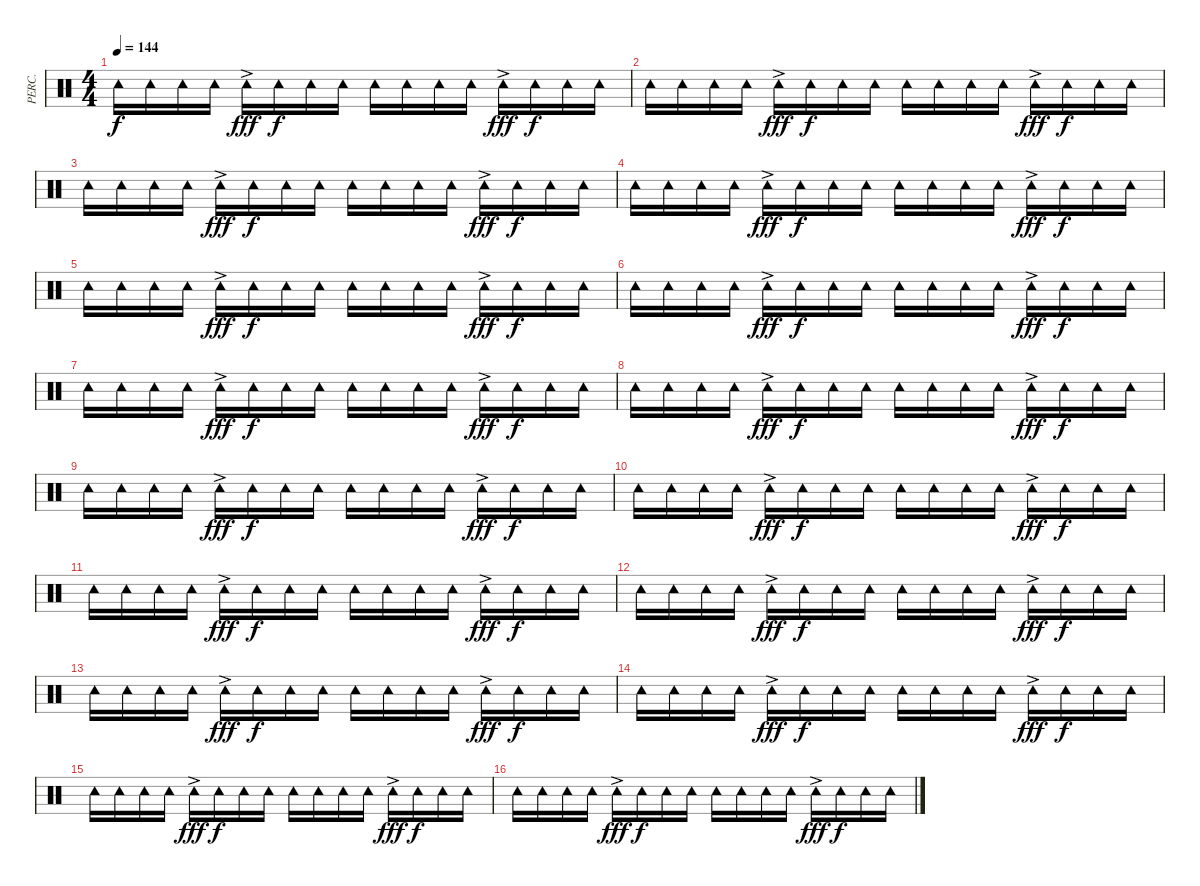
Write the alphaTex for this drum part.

\track ("PERC." "PERC.") {instrument percussion}
\staff {score}
\articulation defaults
\ts (4 4)
\tempo 144
\clef neutral
\ks c "Tambourine (hit)".16{dy f} "Tambourine (hit)".16 "Tambourine (hit)".16 "Tambourine (hit)".16 "Tambourine (hit)"{ac}.16{dy fff} "Tambourine (hit)".16{dy f} "Tambourine (hit)".16 "Tambourine (hit)".16 "Tambourine (hit)".16 "Tambourine (hit)".16 "Tambourine (hit)".16 "Tambourine (hit)".16 "Tambourine (hit)"{ac}.16{dy fff} "Tambourine (hit)".16{dy f} "Tambourine (hit)".16 "Tambourine (hit)".16
|
"Tambourine (hit)".16 "Tambourine (hit)".16 "Tambourine (hit)".16 "Tambourine (hit)".16 "Tambourine (hit)"{ac}.16{dy fff} "Tambourine (hit)".16{dy f} "Tambourine (hit)".16 "Tambourine (hit)".16 "Tambourine (hit)".16 "Tambourine (hit)".16 "Tambourine (hit)".16 "Tambourine (hit)".16 "Tambourine (hit)"{ac}.16{dy fff} "Tambourine (hit)".16{dy f} "Tambourine (hit)".16 "Tambourine (hit)".16 |
"Tambourine (hit)".16 "Tambourine (hit)".16 "Tambourine (hit)".16 "Tambourine (hit)".16 "Tambourine (hit)"{ac}.16{dy fff} "Tambourine (hit)".16{dy f} "Tambourine (hit)".16 "Tambourine (hit)".16 "Tambourine (hit)".16 "Tambourine (hit)".16 "Tambourine (hit)".16 "Tambourine (hit)".16 "Tambourine (hit)"{ac}.16{dy fff} "Tambourine (hit)".16{dy f} "Tambourine (hit)".16 "Tambourine (hit)".16 |
"Tambourine (hit)".16 "Tambourine (hit)".16 "Tambourine (hit)".16 "Tambourine (hit)".16 "Tambourine (hit)"{ac}.16{dy fff} "Tambourine (hit)".16{dy f} "Tambourine (hit)".16 "Tambourine (hit)".16 "Tambourine (hit)".16 "Tambourine (hit)".16 "Tambourine (hit)".16 "Tambourine (hit)".16 "Tambourine (hit)"{ac}.16{dy fff} "Tambourine (hit)".16{dy f} "Tambourine (hit)".16 "Tambourine (hit)".16 |
"Tambourine (hit)".16 "Tambourine (hit)".16 "Tambourine (hit)".16 "Tambourine (hit)".16 "Tambourine (hit)"{ac}.16{dy fff} "Tambourine (hit)".16{dy f} "Tambourine (hit)".16 "Tambourine (hit)".16 "Tambourine (hit)".16 "Tambourine (hit)".16 "Tambourine (hit)".16 "Tambourine (hit)".16 "Tambourine (hit)"{ac}.16{dy fff} "Tambourine (hit)".16{dy f} "Tambourine (hit)".16 "Tambourine (hit)".16 |
"Tambourine (hit)".16 "Tambourine (hit)".16 "Tambourine (hit)".16 "Tambourine (hit)".16 "Tambourine (hit)"{ac}.16{dy fff} "Tambourine (hit)".16{dy f} "Tambourine (hit)".16 "Tambourine (hit)".16 "Tambourine (hit)".16 "Tambourine (hit)".16 "Tambourine (hit)".16 "Tambourine (hit)".16 "Tambourine (hit)"{ac}.16{dy fff} "Tambourine (hit)".16{dy f} "Tambourine (hit)".16 "Tambourine (hit)".16 |
"Tambourine (hit)".16 "Tambourine (hit)".16 "Tambourine (hit)".16 "Tambourine (hit)".16 "Tambourine (hit)"{ac}.16{dy fff} "Tambourine (hit)".16{dy f} "Tambourine (hit)".16 "Tambourine (hit)".16 "Tambourine (hit)".16 "Tambourine (hit)".16 "Tambourine (hit)".16 "Tambourine (hit)".16 "Tambourine (hit)"{ac}.16{dy fff} "Tambourine (hit)".16{dy f} "Tambourine (hit)".16 "Tambourine (hit)".16 |
"Tambourine (hit)".16 "Tambourine (hit)".16 "Tambourine (hit)".16 "Tambourine (hit)".16 "Tambourine (hit)"{ac}.16{dy fff} "Tambourine (hit)".16{dy f} "Tambourine (hit)".16 "Tambourine (hit)".16 "Tambourine (hit)".16 "Tambourine (hit)".16 "Tambourine (hit)".16 "Tambourine (hit)".16 "Tambourine (hit)"{ac}.16{dy fff} "Tambourine (hit)".16{dy f} "Tambourine (hit)".16 "Tambourine (hit)".16 |
"Tambourine (hit)".16 "Tambourine (hit)".16 "Tambourine (hit)".16 "Tambourine (hit)".16 "Tambourine (hit)"{ac}.16{dy fff} "Tambourine (hit)".16{dy f} "Tambourine (hit)".16 "Tambourine (hit)".16 "Tambourine (hit)".16 "Tambourine (hit)".16 "Tambourine (hit)".16 "Tambourine (hit)".16 "Tambourine (hit)"{ac}.16{dy fff} "Tambourine (hit)".16{dy f} "Tambourine (hit)".16 "Tambourine (hit)".16 |
"Tambourine (hit)".16 "Tambourine (hit)".16 "Tambourine (hit)".16 "Tambourine (hit)".16 "Tambourine (hit)"{ac}.16{dy fff} "Tambourine (hit)".16{dy f} "Tambourine (hit)".16 "Tambourine (hit)".16 "Tambourine (hit)".16 "Tambourine (hit)".16 "Tambourine (hit)".16 "Tambourine (hit)".16 "Tambourine (hit)"{ac}.16{dy fff} "Tambourine (hit)".16{dy f} "Tambourine (hit)".16 "Tambourine (hit)".16 |
"Tambourine (hit)".16 "Tambourine (hit)".16 "Tambourine (hit)".16 "Tambourine (hit)".16 "Tambourine (hit)"{ac}.16{dy fff} "Tambourine (hit)".16{dy f} "Tambourine (hit)".16 "Tambourine (hit)".16 "Tambourine (hit)".16 "Tambourine (hit)".16 "Tambourine (hit)".16 "Tambourine (hit)".16 "Tambourine (hit)"{ac}.16{dy fff} "Tambourine (hit)".16{dy f} "Tambourine (hit)".16 "Tambourine (hit)".16 |
"Tambourine (hit)".16 "Tambourine (hit)".16 "Tambourine (hit)".16 "Tambourine (hit)".16 "Tambourine (hit)"{ac}.16{dy fff} "Tambourine (hit)".16{dy f} "Tambourine (hit)".16 "Tambourine (hit)".16 "Tambourine (hit)".16 "Tambourine (hit)".16 "Tambourine (hit)".16 "Tambourine (hit)".16 "Tambourine (hit)"{ac}.16{dy fff} "Tambourine (hit)".16{dy f} "Tambourine (hit)".16 "Tambourine (hit)".16 |
"Tambourine (hit)".16 "Tambourine (hit)".16 "Tambourine (hit)".16 "Tambourine (hit)".16 "Tambourine (hit)"{ac}.16{dy fff} "Tambourine (hit)".16{dy f} "Tambourine (hit)".16 "Tambourine (hit)".16 "Tambourine (hit)".16 "Tambourine (hit)".16 "Tambourine (hit)".16 "Tambourine (hit)".16 "Tambourine (hit)"{ac}.16{dy fff} "Tambourine (hit)".16{dy f} "Tambourine (hit)".16 "Tambourine (hit)".16 |
"Tambourine (hit)".16 "Tambourine (hit)".16 "Tambourine (hit)".16 "Tambourine (hit)".16 "Tambourine (hit)"{ac}.16{dy fff} "Tambourine (hit)".16{dy f} "Tambourine (hit)".16 "Tambourine (hit)".16 "Tambourine (hit)".16 "Tambourine (hit)".16 "Tambourine (hit)".16 "Tambourine (hit)".16 "Tambourine (hit)"{ac}.16{dy fff} "Tambourine (hit)".16{dy f} "Tambourine (hit)".16 "Tambourine (hit)".16 |
"Tambourine (hit)".16 "Tambourine (hit)".16 "Tambourine (hit)".16 "Tambourine (hit)".16 "Tambourine (hit)"{ac}.16{dy fff} "Tambourine (hit)".16{dy f} "Tambourine (hit)".16 "Tambourine (hit)".16 "Tambourine (hit)".16 "Tambourine (hit)".16 "Tambourine (hit)".16 "Tambourine (hit)".16 "Tambourine (hit)"{ac}.16{dy fff} "Tambourine (hit)".16{dy f} "Tambourine (hit)".16 "Tambourine (hit)".16 |
"Tambourine (hit)".16 "Tambourine (hit)".16 "Tambourine (hit)".16 "Tambourine (hit)".16 "Tambourine (hit)"{ac}.16{dy fff} "Tambourine (hit)".16{dy f} "Tambourine (hit)".16 "Tambourine (hit)".16 "Tambourine (hit)".16 "Tambourine (hit)".16 "Tambourine (hit)".16 "Tambourine (hit)".16 "Tambourine (hit)"{ac}.16{dy fff} "Tambourine (hit)".16{dy f} "Tambourine (hit)".16 "Tambourine (hit)".16
